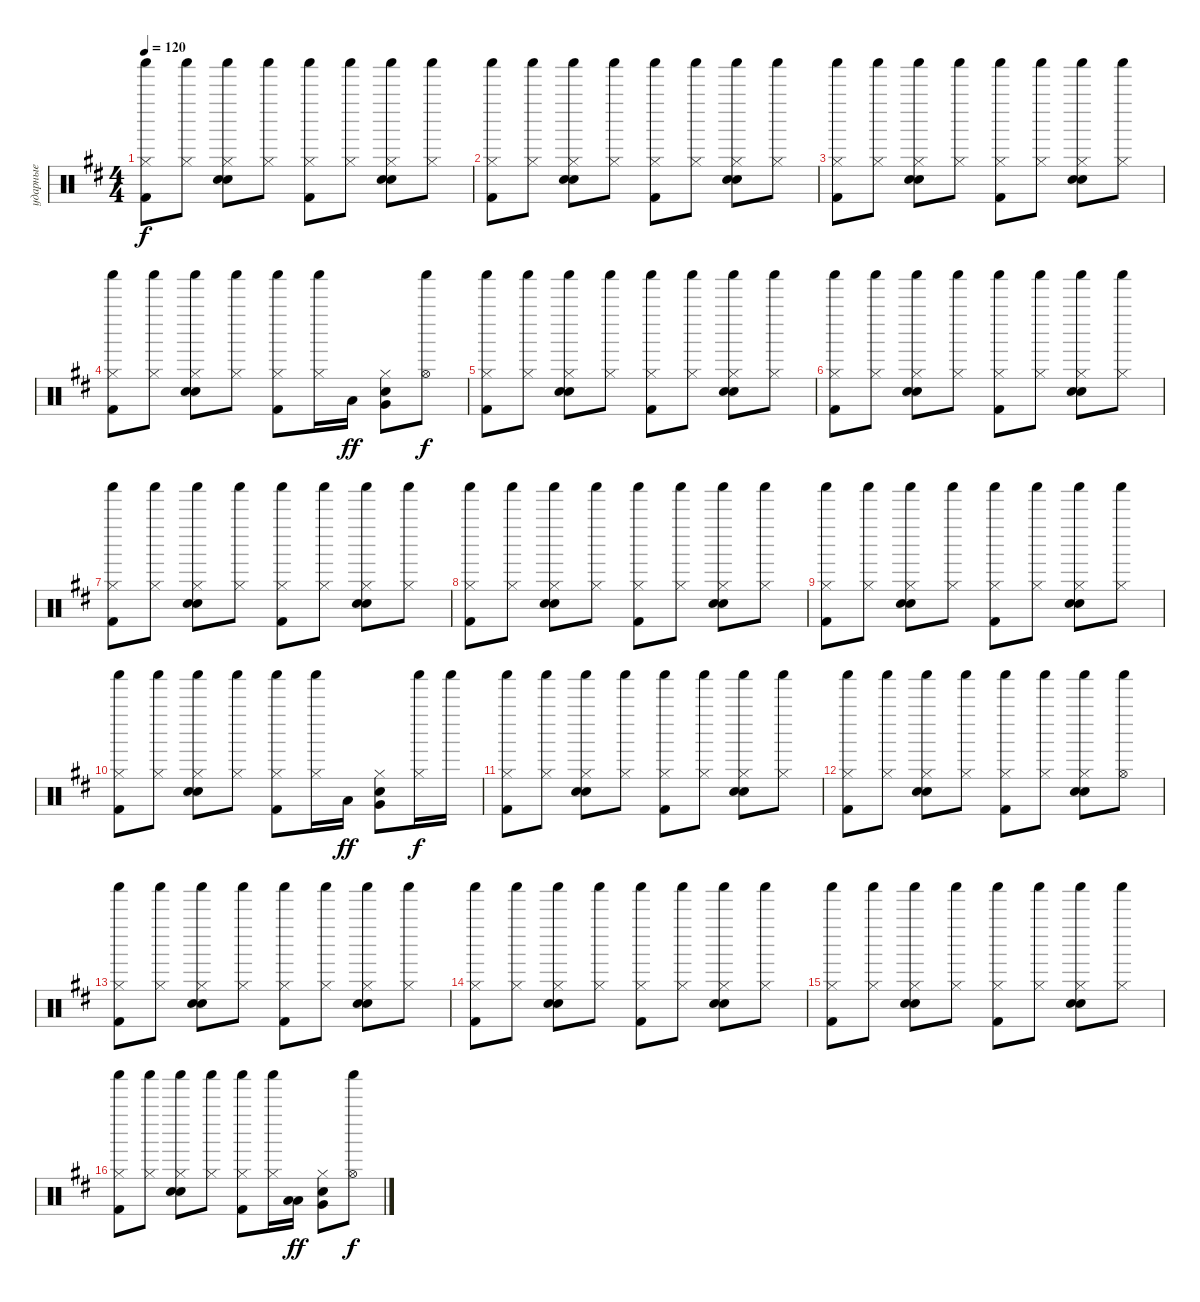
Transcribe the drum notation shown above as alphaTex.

\track ("ударные" "ударные") {instrument percussion}
\staff {score}
\articulation defaults
\ts (4 4)
\tempo 120
\clef neutral
\ks bminor
("Hi-Hat (closed)" "Shaker (hit)" "Kick (hit) 2").8{dy f} ("Hi-Hat (closed)" "Shaker (hit)").8 ("Hi-Hat (closed)" "Shaker (hit)" "Hand Clap (hit)" "Snare (hit) 2").8 ("Hi-Hat (closed)" "Shaker (hit)").8 ("Hi-Hat (closed)" "Shaker (hit)" "Kick (hit) 2").8 ("Hi-Hat (closed)" "Shaker (hit)").8 ("Hi-Hat (closed)" "Shaker (hit)" "Hand Clap (hit)" "Snare (hit) 2").8 ("Hi-Hat (closed)" "Shaker (hit)").8 |
("Hi-Hat (closed)" "Shaker (hit)" "Kick (hit) 2").8 ("Hi-Hat (closed)" "Shaker (hit)").8 ("Hi-Hat (closed)" "Shaker (hit)" "Hand Clap (hit)" "Snare (hit) 2").8 ("Hi-Hat (closed)" "Shaker (hit)").8 ("Hi-Hat (closed)" "Shaker (hit)" "Kick (hit) 2").8 ("Hi-Hat (closed)" "Shaker (hit)").8 ("Hi-Hat (closed)" "Shaker (hit)" "Hand Clap (hit)" "Snare (hit) 2").8 ("Hi-Hat (closed)" "Shaker (hit)").8 |
("Hi-Hat (closed)" "Shaker (hit)" "Kick (hit) 2").8 ("Hi-Hat (closed)" "Shaker (hit)").8 ("Hi-Hat (closed)" "Shaker (hit)" "Hand Clap (hit)" "Snare (hit) 2").8 ("Hi-Hat (closed)" "Shaker (hit)").8 ("Hi-Hat (closed)" "Shaker (hit)" "Kick (hit) 2").8 ("Hi-Hat (closed)" "Shaker (hit)").8 ("Hi-Hat (closed)" "Shaker (hit)" "Hand Clap (hit)" "Snare (hit) 2").8 ("Hi-Hat (closed)" "Shaker (hit)").8 |
("Hi-Hat (closed)" "Shaker (hit)" "Kick (hit) 2").8 ("Hi-Hat (closed)" "Shaker (hit)").8 ("Hi-Hat (closed)" "Shaker (hit)" "Hand Clap (hit)" "Snare (hit) 2").8 ("Hi-Hat (closed)" "Shaker (hit)").8 ("Hi-Hat (closed)" "Shaker (hit)" "Kick (hit) 2").8 ("Hi-Hat (closed)" "Shaker (hit)").16 "Low Tom (hit)".16{dy ff} ("Snare (hit) 2" "Very Low Tom (hit)" "Hi-Hat (closed)").8 ("Shaker (hit)" "Hi-Hat (open)").8{dy f} |
("Hi-Hat (closed)" "Shaker (hit)" "Kick (hit) 2").8 ("Hi-Hat (closed)" "Shaker (hit)").8 ("Hi-Hat (closed)" "Shaker (hit)" "Hand Clap (hit)" "Snare (hit) 2").8 ("Hi-Hat (closed)" "Shaker (hit)").8 ("Hi-Hat (closed)" "Shaker (hit)" "Kick (hit) 2").8 ("Hi-Hat (closed)" "Shaker (hit)").8 ("Hi-Hat (closed)" "Shaker (hit)" "Hand Clap (hit)" "Snare (hit) 2").8 ("Hi-Hat (closed)" "Shaker (hit)").8 |
("Hi-Hat (closed)" "Shaker (hit)" "Kick (hit) 2").8 ("Hi-Hat (closed)" "Shaker (hit)").8 ("Hi-Hat (closed)" "Shaker (hit)" "Hand Clap (hit)" "Snare (hit) 2").8 ("Hi-Hat (closed)" "Shaker (hit)").8 ("Hi-Hat (closed)" "Shaker (hit)" "Kick (hit) 2").8 ("Hi-Hat (closed)" "Shaker (hit)").8 ("Hi-Hat (closed)" "Shaker (hit)" "Hand Clap (hit)" "Snare (hit) 2").8 ("Hi-Hat (closed)" "Shaker (hit)").8 |
("Hi-Hat (closed)" "Shaker (hit)" "Kick (hit) 2").8 ("Hi-Hat (closed)" "Shaker (hit)").8 ("Hi-Hat (closed)" "Shaker (hit)" "Hand Clap (hit)" "Snare (hit) 2").8 ("Hi-Hat (closed)" "Shaker (hit)").8 ("Hi-Hat (closed)" "Shaker (hit)" "Kick (hit) 2").8 ("Hi-Hat (closed)" "Shaker (hit)").8 ("Hi-Hat (closed)" "Shaker (hit)" "Hand Clap (hit)" "Snare (hit) 2").8 ("Hi-Hat (closed)" "Shaker (hit)").8 |
("Hi-Hat (closed)" "Shaker (hit)" "Kick (hit) 2").8 ("Hi-Hat (closed)" "Shaker (hit)").8 ("Hi-Hat (closed)" "Shaker (hit)" "Hand Clap (hit)" "Snare (hit) 2").8 ("Hi-Hat (closed)" "Shaker (hit)").8 ("Hi-Hat (closed)" "Shaker (hit)" "Kick (hit) 2").8 ("Hi-Hat (closed)" "Shaker (hit)").8 ("Hi-Hat (closed)" "Shaker (hit)" "Hand Clap (hit)" "Snare (hit) 2").8 ("Hi-Hat (closed)" "Shaker (hit)").8 |
("Hi-Hat (closed)" "Shaker (hit)" "Kick (hit) 2").8 ("Hi-Hat (closed)" "Shaker (hit)").8 ("Hi-Hat (closed)" "Shaker (hit)" "Hand Clap (hit)" "Snare (hit) 2").8 ("Hi-Hat (closed)" "Shaker (hit)").8 ("Hi-Hat (closed)" "Shaker (hit)" "Kick (hit) 2").8 ("Hi-Hat (closed)" "Shaker (hit)").8 ("Hi-Hat (closed)" "Shaker (hit)" "Hand Clap (hit)" "Snare (hit) 2").8 ("Hi-Hat (closed)" "Shaker (hit)").8 |
("Hi-Hat (closed)" "Shaker (hit)" "Kick (hit) 2").8 ("Hi-Hat (closed)" "Shaker (hit)").8 ("Hi-Hat (closed)" "Shaker (hit)" "Hand Clap (hit)" "Snare (hit) 2").8 ("Hi-Hat (closed)" "Shaker (hit)").8 ("Hi-Hat (closed)" "Shaker (hit)" "Kick (hit) 2").8 ("Hi-Hat (closed)" "Shaker (hit)").16 "Low Floor Tom (hit)".16{dy ff} ("Snare (hit) 2" "Very Low Tom (hit)" "Hi-Hat (closed)").8 ("Hi-Hat (closed)" "Shaker (hit)").16{dy f} "Shaker (hit)".16 |
("Hi-Hat (closed)" "Shaker (hit)" "Kick (hit) 2").8 ("Hi-Hat (closed)" "Shaker (hit)").8 ("Hi-Hat (closed)" "Shaker (hit)" "Hand Clap (hit)" "Snare (hit) 2").8 ("Hi-Hat (closed)" "Shaker (hit)").8 ("Hi-Hat (closed)" "Shaker (hit)" "Kick (hit) 2").8 ("Hi-Hat (closed)" "Shaker (hit)").8 ("Hi-Hat (closed)" "Shaker (hit)" "Hand Clap (hit)" "Snare (hit) 2").8 ("Hi-Hat (closed)" "Shaker (hit)").8 |
("Hi-Hat (closed)" "Shaker (hit)" "Kick (hit) 2").8 ("Hi-Hat (closed)" "Shaker (hit)").8 ("Hi-Hat (closed)" "Shaker (hit)" "Hand Clap (hit)" "Snare (hit) 2").8 ("Hi-Hat (closed)" "Shaker (hit)").8 ("Hi-Hat (closed)" "Shaker (hit)" "Kick (hit) 2").8 ("Hi-Hat (closed)" "Shaker (hit)").8 ("Hi-Hat (closed)" "Shaker (hit)" "Hand Clap (hit)" "Snare (hit) 2").8 ("Shaker (hit)" "Hi-Hat (open)").8 |
("Hi-Hat (closed)" "Shaker (hit)" "Kick (hit) 2").8 ("Hi-Hat (closed)" "Shaker (hit)").8 ("Hi-Hat (closed)" "Shaker (hit)" "Hand Clap (hit)" "Snare (hit) 2").8 ("Hi-Hat (closed)" "Shaker (hit)").8 ("Hi-Hat (closed)" "Shaker (hit)" "Kick (hit) 2").8 ("Hi-Hat (closed)" "Shaker (hit)").8 ("Hi-Hat (closed)" "Shaker (hit)" "Hand Clap (hit)" "Snare (hit) 2").8 ("Hi-Hat (closed)" "Shaker (hit)").8 |
("Hi-Hat (closed)" "Shaker (hit)" "Kick (hit) 2").8 ("Hi-Hat (closed)" "Shaker (hit)").8 ("Hi-Hat (closed)" "Shaker (hit)" "Hand Clap (hit)" "Snare (hit) 2").8 ("Hi-Hat (closed)" "Shaker (hit)").8 ("Hi-Hat (closed)" "Shaker (hit)" "Kick (hit) 2").8 ("Hi-Hat (closed)" "Shaker (hit)").8 ("Hi-Hat (closed)" "Shaker (hit)" "Hand Clap (hit)" "Snare (hit) 2").8 ("Hi-Hat (closed)" "Shaker (hit)").8 |
("Hi-Hat (closed)" "Shaker (hit)" "Kick (hit) 2").8 ("Hi-Hat (closed)" "Shaker (hit)").8 ("Hi-Hat (closed)" "Shaker (hit)" "Hand Clap (hit)" "Snare (hit) 2").8 ("Hi-Hat (closed)" "Shaker (hit)").8 ("Hi-Hat (closed)" "Shaker (hit)" "Kick (hit) 2").8 ("Hi-Hat (closed)" "Shaker (hit)").8 ("Hi-Hat (closed)" "Shaker (hit)" "Hand Clap (hit)" "Snare (hit) 2").8 ("Hi-Hat (closed)" "Shaker (hit)").8 |
("Hi-Hat (closed)" "Shaker (hit)" "Kick (hit) 2").8 ("Hi-Hat (closed)" "Shaker (hit)").8 ("Hi-Hat (closed)" "Shaker (hit)" "Hand Clap (hit)" "Snare (hit) 2").8 ("Hi-Hat (closed)" "Shaker (hit)").8 ("Hi-Hat (closed)" "Shaker (hit)" "Kick (hit) 2").8 ("Hi-Hat (closed)" "Shaker (hit)").16 ("Low Tom (hit)" "Low Floor Tom (hit)").16{dy ff} ("Snare (hit) 2" "Very Low Tom (hit)" "Hi-Hat (closed)").8 ("Shaker (hit)" "Hi-Hat (open)").8{dy f}
